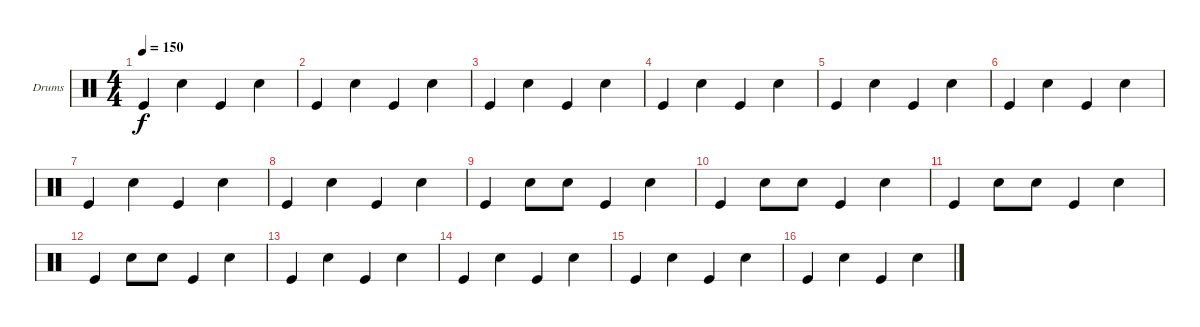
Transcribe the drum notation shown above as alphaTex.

\bracketExtendMode groupsimilarinstruments
\firstSystemTrackNameOrientation horizontal
\otherSystemsTrackNameOrientation horizontal
\track ("Drumkit" "Drums") {instrument percussion}
\staff {score}
\articulation defaults
\ts (4 4)
\tempo 150
\clef neutral
\ks c "Kick (hit)".4{dy f} "Snare (hit) 2".4 "Kick (hit)".4 "Snare (hit) 2".4
|
"Kick (hit)".4 "Snare (hit) 2".4 "Kick (hit)".4 "Snare (hit) 2".4 |
"Kick (hit)".4 "Snare (hit) 2".4 "Kick (hit)".4 "Snare (hit) 2".4 |
"Kick (hit)".4 "Snare (hit) 2".4 "Kick (hit)".4 "Snare (hit) 2".4 |
"Kick (hit)".4 "Snare (hit) 2".4 "Kick (hit)".4 "Snare (hit) 2".4 |
"Kick (hit)".4 "Snare (hit) 2".4 "Kick (hit)".4 "Snare (hit) 2".4 |
"Kick (hit)".4 "Snare (hit) 2".4 "Kick (hit)".4 "Snare (hit) 2".4 |
"Kick (hit)".4 "Snare (hit) 2".4 "Kick (hit)".4 "Snare (hit) 2".4 |
"Kick (hit)".4 "Snare (hit) 2".8 "Snare (hit) 2".8 "Kick (hit)".4 "Snare (hit) 2".4 |
"Kick (hit)".4 "Snare (hit) 2".8 "Snare (hit) 2".8 "Kick (hit)".4 "Snare (hit) 2".4 |
"Kick (hit)".4 "Snare (hit) 2".8 "Snare (hit) 2".8 "Kick (hit)".4 "Snare (hit) 2".4 |
"Kick (hit)".4 "Snare (hit) 2".8 "Snare (hit) 2".8 "Kick (hit)".4 "Snare (hit) 2".4 |
"Kick (hit)".4 "Snare (hit) 2".4 "Kick (hit)".4 "Snare (hit) 2".4 |
"Kick (hit)".4 "Snare (hit) 2".4 "Kick (hit)".4 "Snare (hit) 2".4 |
"Kick (hit)".4 "Snare (hit) 2".4 "Kick (hit)".4 "Snare (hit) 2".4 |
"Kick (hit)".4 "Snare (hit) 2".4 "Kick (hit)".4 "Snare (hit) 2".4
